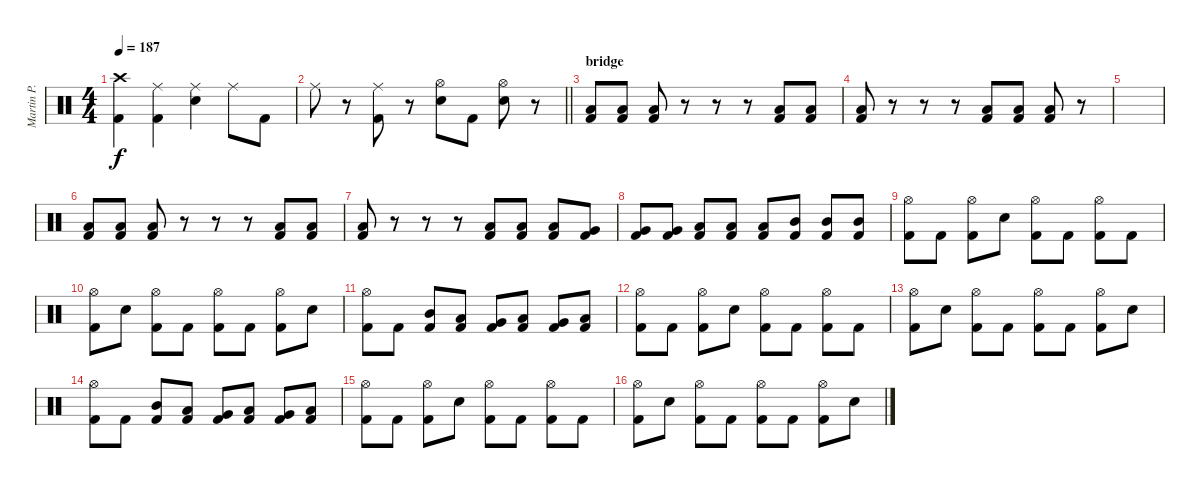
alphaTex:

\track ("Martin P." "Martin P.") {instrument percussion}
\staff {score}
\articulation defaults
\ts (4 4)
\tempo 187
\clef neutral
\ks c
("Kick (hit) 2" "Crash high (hit)").4{dy f} ("Kick (hit) 2" "Ride (middle)").4 ("Electric Snare (hit)" "Ride (middle)").4 "Ride (middle)".8 "Kick (hit) 2".8 |
\barLineRight lightlight "Ride (middle)".8
r.8 ("Kick (hit) 2" "Ride (middle)").8 r.8 ("Electric Snare (hit)" "Hi-Hat (open)").8 "Kick (hit) 2".8 ("Electric Snare (hit)" "Hi-Hat (open)").8 r.8 |
\section ("" "bridge")
("Low Floor Tom (hit)" "Kick (hit) 2").8 ("Low Floor Tom (hit)" "Kick (hit) 2").8 ("Low Floor Tom (hit)" "Kick (hit) 2").8 r.8 r.8 r.8 ("Low Floor Tom (hit)" "Kick (hit) 2").8 ("Low Floor Tom (hit)" "Kick (hit) 2").8 |
("Low Floor Tom (hit)" "Kick (hit) 2").8 r.8 r.8 r.8 ("Low Floor Tom (hit)" "Kick (hit) 2").8 ("Low Floor Tom (hit)" "Kick (hit) 2").8 ("Low Floor Tom (hit)" "Kick (hit) 2").8 r.8 |
|
("Low Floor Tom (hit)" "Kick (hit) 2").8 ("Low Floor Tom (hit)" "Kick (hit) 2").8 ("Low Floor Tom (hit)" "Kick (hit) 2").8 r.8 r.8 r.8 ("Low Floor Tom (hit)" "Kick (hit) 2").8 ("Low Floor Tom (hit)" "Kick (hit) 2").8 |
("Low Floor Tom (hit)" "Kick (hit) 2").8 r.8 r.8 r.8 ("Low Floor Tom (hit)" "Kick (hit) 2").8 ("Low Floor Tom (hit)" "Kick (hit) 2").8 ("Low Floor Tom (hit)" "Kick (hit) 2").8 ("Very Low Tom (hit)" "Kick (hit) 2").8 |
("Very Low Tom (hit)" "Kick (hit) 2").8 ("Very Low Tom (hit)" "Kick (hit) 2").8 ("Low Tom (hit)" "Kick (hit) 2").8 ("Low Tom (hit)" "Kick (hit) 2").8 ("Low Tom (hit)" "Kick (hit) 2").8 ("Mid Tom (hit)" "Kick (hit) 2").8 ("Mid Tom (hit)" "Kick (hit) 2").8 ("Mid Tom (hit)" "Kick (hit) 2").8 |
("Hi-Hat (open)" "Kick (hit) 2").8 "Kick (hit) 2".8 ("Hi-Hat (open)" "Kick (hit) 2").8 "Electric Snare (hit)".8 ("Hi-Hat (open)" "Kick (hit) 2").8 "Kick (hit) 2".8 ("Hi-Hat (open)" "Kick (hit) 2").8 "Kick (hit) 2".8 |
("Hi-Hat (open)" "Kick (hit) 2").8 "Electric Snare (hit)".8 ("Hi-Hat (open)" "Kick (hit) 2").8 "Kick (hit) 2".8 ("Hi-Hat (open)" "Kick (hit) 2").8 "Kick (hit) 2".8 ("Hi-Hat (open)" "Kick (hit) 2").8 "Electric Snare (hit)".8 |
("Hi-Hat (open)" "Kick (hit) 2").8 "Kick (hit) 2".8 ("Mid Tom (hit)" "Kick (hit) 2").8 ("Low Tom (hit)" "Kick (hit) 2").8 ("Very Low Tom (hit)" "Kick (hit) 2").8 ("Low Tom (hit)" "Kick (hit) 2").8 ("Very Low Tom (hit)" "Kick (hit) 2").8 ("Low Floor Tom (hit)" "Kick (hit) 2").8 |
("Hi-Hat (open)" "Kick (hit) 2").8 "Kick (hit) 2".8 ("Hi-Hat (open)" "Kick (hit) 2").8 "Electric Snare (hit)".8 ("Hi-Hat (open)" "Kick (hit) 2").8 "Kick (hit) 2".8 ("Hi-Hat (open)" "Kick (hit) 2").8 "Kick (hit) 2".8 |
("Hi-Hat (open)" "Kick (hit) 2").8 "Electric Snare (hit)".8 ("Hi-Hat (open)" "Kick (hit) 2").8 "Kick (hit) 2".8 ("Hi-Hat (open)" "Kick (hit) 2").8 "Kick (hit) 2".8 ("Hi-Hat (open)" "Kick (hit) 2").8 "Electric Snare (hit)".8 |
("Hi-Hat (open)" "Kick (hit) 2").8 "Kick (hit) 2".8 ("Mid Tom (hit)" "Kick (hit) 2").8 ("Low Tom (hit)" "Kick (hit) 2").8 ("Very Low Tom (hit)" "Kick (hit) 2").8 ("Low Tom (hit)" "Kick (hit) 2").8 ("Very Low Tom (hit)" "Kick (hit) 2").8 ("Low Floor Tom (hit)" "Kick (hit) 2").8 |
("Hi-Hat (open)" "Kick (hit) 2").8 "Kick (hit) 2".8 ("Hi-Hat (open)" "Kick (hit) 2").8 "Electric Snare (hit)".8 ("Hi-Hat (open)" "Kick (hit) 2").8 "Kick (hit) 2".8 ("Hi-Hat (open)" "Kick (hit) 2").8 "Kick (hit) 2".8 |
("Hi-Hat (open)" "Kick (hit) 2").8 "Electric Snare (hit)".8 ("Hi-Hat (open)" "Kick (hit) 2").8 "Kick (hit) 2".8 ("Hi-Hat (open)" "Kick (hit) 2").8 "Kick (hit) 2".8 ("Hi-Hat (open)" "Kick (hit) 2").8 "Electric Snare (hit)".8
